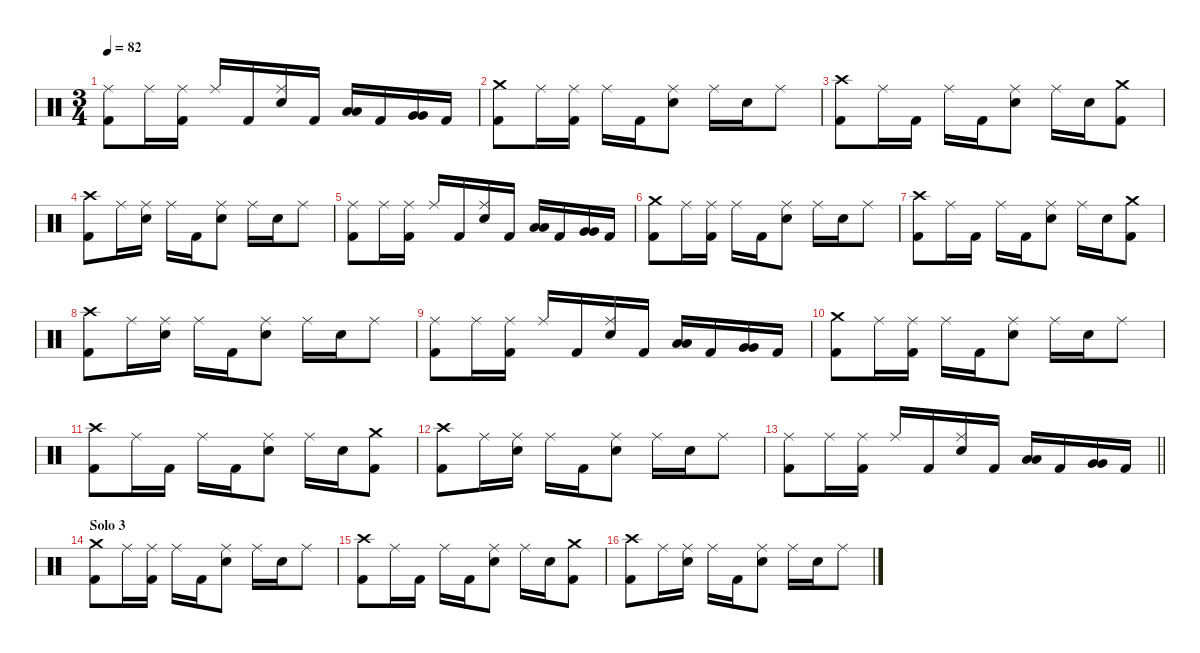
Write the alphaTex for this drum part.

\defaultSystemsLayout 4
\hideDynamics
\bracketExtendMode nobrackets
\singleTrackTrackNamePolicy hidden
\multiTrackTrackNamePolicy hidden
\firstSystemTrackNameMode fullname
\otherSystemsTrackNameOrientation horizontal
\track ("Drums" "drm.") {defaultSystemsLayout 4 instrument percussion}
\staff {score}
\articulation defaults
\ts (3 4)
\tempo 82
\clef neutral
\ks c
("Ride (middle)" "Kick (hit) 2").8{dy f beam Down} "Ride (middle)".16{beam Down} ("Ride (middle)" "Kick (hit) 2").16{beam Down} "Ride (middle)".16{beam Up} "Kick (hit) 2".16{beam Up} ("Ride (middle)" "Snare (hit) 2").16{beam Up} "Kick (hit) 2".16{beam Up} ("Low Tom (hit)" "Low Tom (hit)").16{beam Up} "Kick (hit) 2".16{beam Up} ("Very Low Tom (hit)" "Very Low Tom (hit)").16{beam Up} "Kick (hit) 2".16{beam Up} |
("Crash medium (hit)" "Kick (hit) 2").8{beam Down} "Ride (middle)".16{beam Down} ("Ride (middle)" "Kick (hit) 2").16{beam Down} "Ride (middle)".16{beam Down} "Kick (hit) 2".16{beam Down} ("Ride (middle)" "Snare (hit) 2").8{beam Down} "Ride (middle)".16{beam Down} "Snare (hit) 2".16{beam Down} "Ride (middle)".8{beam Down} |
("Crash high (hit)" "Kick (hit) 2").8{beam Down} "Ride (middle)".16{beam Down} "Kick (hit) 2".16{beam Down} "Ride (middle)".16{beam Down} "Kick (hit) 2".16{beam Down} ("Ride (middle)" "Snare (hit) 2").8{beam Down} "Ride (middle)".16{beam Down} "Snare (hit) 2".16{dy fff beam Down} ("Crash medium (hit)" "Kick (hit) 2").8{dy f beam Down} |
("Crash high (hit)" "Kick (hit) 2").8{beam Down} "Ride (middle)".16{beam Down} ("Ride (middle)" "Snare (hit) 2").16{beam Down} "Ride (middle)".16{beam Down} "Kick (hit) 2".16{beam Down} ("Ride (middle)" "Snare (hit) 2").8{beam Down} "Ride (middle)".16{beam Down} "Snare (hit) 2".16{beam Down} "Ride (middle)".8{beam Down} |
("Ride (middle)" "Kick (hit) 2").8{beam Down} "Ride (middle)".16{beam Down} ("Ride (middle)" "Kick (hit) 2").16{beam Down} "Ride (middle)".16{beam Up} "Kick (hit) 2".16{beam Up} ("Ride (middle)" "Snare (hit) 2").16{beam Up} "Kick (hit) 2".16{beam Up} ("Low Tom (hit)" "Low Tom (hit)").16{beam Up} "Kick (hit) 2".16{beam Up} ("Very Low Tom (hit)" "Very Low Tom (hit)").16{beam Up} "Kick (hit) 2".16{beam Up} |
("Crash medium (hit)" "Kick (hit) 2").8{beam Down} "Ride (middle)".16{beam Down} ("Ride (middle)" "Kick (hit) 2").16{beam Down} "Ride (middle)".16{beam Down} "Kick (hit) 2".16{beam Down} ("Ride (middle)" "Snare (hit) 2").8{beam Down} "Ride (middle)".16{beam Down} "Snare (hit) 2".16{beam Down} "Ride (middle)".8{beam Down} |
("Crash high (hit)" "Kick (hit) 2").8{beam Down} "Ride (middle)".16{beam Down} "Kick (hit) 2".16{beam Down} "Ride (middle)".16{beam Down} "Kick (hit) 2".16{beam Down} ("Ride (middle)" "Snare (hit) 2").8{beam Down} "Ride (middle)".16{beam Down} "Snare (hit) 2".16{dy fff beam Down} ("Crash medium (hit)" "Kick (hit) 2").8{dy f beam Down} |
("Crash high (hit)" "Kick (hit) 2").8{beam Down} "Ride (middle)".16{beam Down} ("Ride (middle)" "Snare (hit) 2").16{beam Down} "Ride (middle)".16{beam Down} "Kick (hit) 2".16{beam Down} ("Ride (middle)" "Snare (hit) 2").8{beam Down} "Ride (middle)".16{beam Down} "Snare (hit) 2".16{beam Down} "Ride (middle)".8{beam Down} |
("Ride (middle)" "Kick (hit) 2").8{beam Down} "Ride (middle)".16{beam Down} ("Ride (middle)" "Kick (hit) 2").16{beam Down} "Ride (middle)".16{beam Up} "Kick (hit) 2".16{beam Up} ("Ride (middle)" "Snare (hit) 2").16{beam Up} "Kick (hit) 2".16{beam Up} ("Low Tom (hit)" "Low Tom (hit)").16{beam Up} "Kick (hit) 2".16{beam Up} ("Very Low Tom (hit)" "Very Low Tom (hit)").16{beam Up} "Kick (hit) 2".16{beam Up} |
("Crash medium (hit)" "Kick (hit) 2").8{beam Down} "Ride (middle)".16{beam Down} ("Ride (middle)" "Kick (hit) 2").16{beam Down} "Ride (middle)".16{beam Down} "Kick (hit) 2".16{beam Down} ("Ride (middle)" "Snare (hit) 2").8{beam Down} "Ride (middle)".16{beam Down} "Snare (hit) 2".16{beam Down} "Ride (middle)".8{beam Down} |
("Crash high (hit)" "Kick (hit) 2").8{beam Down} "Ride (middle)".16{beam Down} "Kick (hit) 2".16{beam Down} "Ride (middle)".16{beam Down} "Kick (hit) 2".16{beam Down} ("Ride (middle)" "Snare (hit) 2").8{beam Down} "Ride (middle)".16{beam Down} "Snare (hit) 2".16{dy fff beam Down} ("Crash medium (hit)" "Kick (hit) 2").8{dy f beam Down} |
("Crash high (hit)" "Kick (hit) 2").8{beam Down} "Ride (middle)".16{beam Down} ("Ride (middle)" "Snare (hit) 2").16{beam Down} "Ride (middle)".16{beam Down} "Kick (hit) 2".16{beam Down} ("Ride (middle)" "Snare (hit) 2").8{beam Down} "Ride (middle)".16{beam Down} "Snare (hit) 2".16{beam Down} "Ride (middle)".8{beam Down} |
\barLineRight lightlight
("Ride (middle)" "Kick (hit) 2").8{beam Down} "Ride (middle)".16{beam Down} ("Ride (middle)" "Kick (hit) 2").16{beam Down} "Ride (middle)".16{beam Up} "Kick (hit) 2".16{beam Up} ("Ride (middle)" "Snare (hit) 2").16{beam Up} "Kick (hit) 2".16{beam Up} ("Low Tom (hit)" "Low Tom (hit)").16{beam Up} "Kick (hit) 2".16{beam Up} ("Very Low Tom (hit)" "Very Low Tom (hit)").16{beam Up} "Kick (hit) 2".16{beam Up} |
\section ("" "Solo 3")
("Crash medium (hit)" "Kick (hit) 2").8{beam Down} "Ride (middle)".16{beam Down} ("Ride (middle)" "Kick (hit) 2").16{beam Down} "Ride (middle)".16{beam Down} "Kick (hit) 2".16{beam Down} ("Ride (middle)" "Snare (hit) 2").8{beam Down} "Ride (middle)".16{beam Down} "Snare (hit) 2".16{beam Down} "Ride (middle)".8{beam Down} |
("Crash high (hit)" "Kick (hit) 2").8{beam Down} "Ride (middle)".16{beam Down} "Kick (hit) 2".16{beam Down} "Ride (middle)".16{beam Down} "Kick (hit) 2".16{beam Down} ("Ride (middle)" "Snare (hit) 2").8{beam Down} "Ride (middle)".16{beam Down} "Snare (hit) 2".16{dy fff beam Down} ("Crash medium (hit)" "Kick (hit) 2").8{dy f beam Down} |
("Crash high (hit)" "Kick (hit) 2").8{beam Down} "Ride (middle)".16{beam Down} ("Ride (middle)" "Snare (hit) 2").16{beam Down} "Ride (middle)".16{beam Down} "Kick (hit) 2".16{beam Down} ("Ride (middle)" "Snare (hit) 2").8{beam Down} "Ride (middle)".16{beam Down} "Snare (hit) 2".16{beam Down} "Ride (middle)".8{beam Down}
